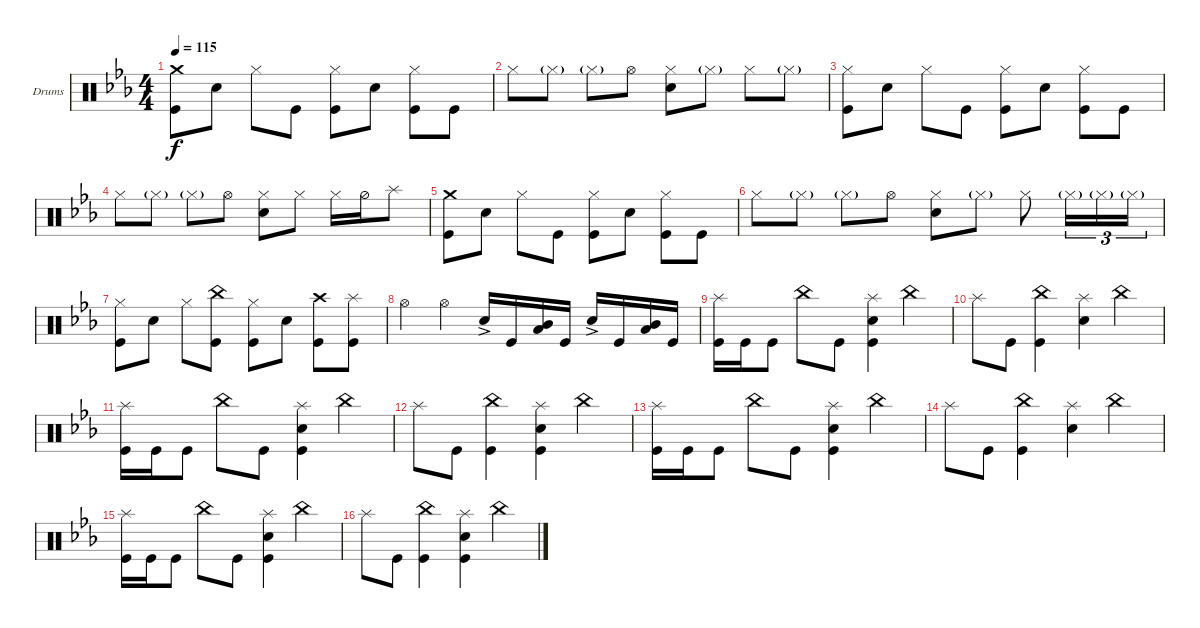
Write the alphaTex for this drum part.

\bracketExtendMode groupsimilarinstruments
\firstSystemTrackNameOrientation horizontal
\otherSystemsTrackNameOrientation horizontal
\track ("Drumkit" "Drums") {instrument percussion}
\staff {score}
\articulation defaults
\ts (4 4)
\tempo 115
\clef neutral
\ks cminor
("Kick (hit)" "Crash medium (hit)").8{dy f} "Snare (hit) 2".8 "Hi-Hat (closed)".8 "Kick (hit)".8 ("Kick (hit)" "Hi-Hat (closed)").8 "Snare (hit) 2".8 ("Kick (hit)" "Hi-Hat (closed)").8 "Kick (hit)".8 |
"Hi-Hat (closed)".8 "Hi-Hat (closed)"{g}.8 "Hi-Hat (closed)"{g}.8 "Hi-Hat (open)".8 ("Snare (hit) 2" "Hi-Hat (closed)").8 "Hi-Hat (closed)"{g}.8 "Hi-Hat (closed)".8 "Hi-Hat (closed)"{g}.8 |
("Kick (hit)" "Hi-Hat (closed)").8 "Snare (hit) 2".8 "Hi-Hat (closed)".8 "Kick (hit)".8 ("Kick (hit)" "Hi-Hat (closed)").8 "Snare (hit) 2".8 ("Kick (hit)" "Hi-Hat (closed)").8 "Kick (hit)".8 |
"Hi-Hat (closed)".8 "Hi-Hat (closed)"{g}.8 "Hi-Hat (closed)"{g}.8 "Hi-Hat (open)".8 ("Snare (hit) 2" "Hi-Hat (closed)").8 "Hi-Hat (closed)".8 "Hi-Hat (closed)".16 "Hi-Hat (half)".16 "Splash (hit)".8 |
("Kick (hit)" "Crash medium (hit)").8 "Snare (hit) 2".8 "Hi-Hat (closed)".8 "Kick (hit)".8 ("Kick (hit)" "Hi-Hat (closed)").8 "Snare (hit) 2".8 ("Kick (hit)" "Hi-Hat (closed)").8 "Kick (hit)".8 |
"Hi-Hat (closed)".8 "Hi-Hat (closed)"{g}.8 "Hi-Hat (closed)"{g}.8 "Hi-Hat (open)".8 ("Snare (hit) 2" "Hi-Hat (closed)").8 "Hi-Hat (closed)"{g}.8 "Hi-Hat (closed)".8 "Hi-Hat (closed)"{g}.16{tu (3 2)} "Hi-Hat (closed)"{g}.16{tu (3 2)} "Hi-Hat (closed)"{g}.16{tu (3 2)} |
("Kick (hit)" "Hi-Hat (closed)").8 "Snare (hit) 2".8 "Hi-Hat (closed)".8 ("Kick (hit)" "China (hit)").8 ("Kick (hit)" "Hi-Hat (closed)").8 "Snare (hit) 2".8 ("Kick (hit)" "Crash high (hit)").8 ("Kick (hit)" "Splash (hit)").8 |
"Hi-Hat (open)".4 "Hi-Hat (open)".4 "Snare (hit) 2"{ac}.16 "Kick (hit)".16 ("Mid Tom (hit)" "Low Tom (hit)").16 "Kick (hit)".16 "Snare (hit) 2"{ac}.16 "Kick (hit)".16 ("Mid Tom (hit)" "Low Tom (hit)").16 "Kick (hit)".16 |
("Kick (hit)" "Splash (hit)").16 "Kick (hit)".16 "Kick (hit)".8 "China (hit)".8 "Kick (hit)".8 ("Snare (hit) 2" "Kick (hit)" "Splash (hit)").4 "China (hit)".4 |
"Splash (hit)".8 "Kick (hit)".8 ("Kick (hit)" "China (hit)").4 ("Splash (hit)" "Snare (hit) 2").4 "China (hit)".4 |
("Kick (hit)" "Splash (hit)").16 "Kick (hit)".16 "Kick (hit)".8 "China (hit)".8 "Kick (hit)".8 ("Snare (hit) 2" "Kick (hit)" "Splash (hit)").4 "China (hit)".4 |
"Splash (hit)".8 "Kick (hit)".8 ("Kick (hit)" "China (hit)").4 ("Kick (hit)" "Splash (hit)" "Snare (hit) 2").4 "China (hit)".4 |
("Kick (hit)" "Splash (hit)").16 "Kick (hit)".16 "Kick (hit)".8 "China (hit)".8 "Kick (hit)".8 ("Snare (hit) 2" "Kick (hit)" "Splash (hit)").4 "China (hit)".4 |
"Splash (hit)".8 "Kick (hit)".8 ("Kick (hit)" "China (hit)").4 ("Splash (hit)" "Snare (hit) 2").4 "China (hit)".4 |
("Kick (hit)" "Splash (hit)").16 "Kick (hit)".16 "Kick (hit)".8 "China (hit)".8 "Kick (hit)".8 ("Snare (hit) 2" "Kick (hit)" "Splash (hit)").4 "China (hit)".4 |
"Splash (hit)".8 "Kick (hit)".8 ("Kick (hit)" "China (hit)").4 ("Kick (hit)" "Splash (hit)" "Snare (hit) 2").4 "China (hit)".4
